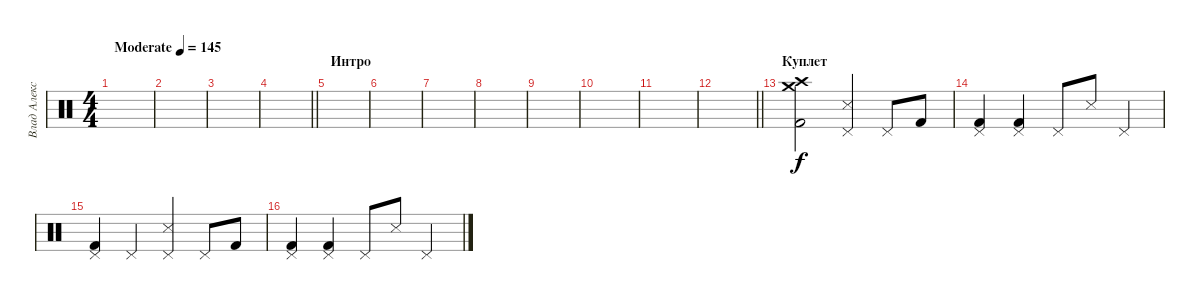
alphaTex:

\track ("Влад Алексеенко" "Влад Алекс") {instrument percussion}
\staff {score}
\articulation defaults
\ts (4 4)
\tempo (145 "Moderate")
\clef neutral
\ks c
|
|
|
\barLineRight lightlight
|
\section ("" "Интро")
|
|
|
|
|
|
|
\barLineRight lightlight
|
\section ("" "Куплет")
("Crash medium (hit)" "Crash high (hit)" "Kick (hit) 2").2 ("Pedal Hi-Hat (hit)" "Metronome (hit)").4 "Pedal Hi-Hat (hit)".8 "Kick (hit) 2".8 |
("Pedal Hi-Hat (hit)" "Kick (hit) 2").4 ("Pedal Hi-Hat (hit)" "Kick (hit) 2").4 "Pedal Hi-Hat (hit)".8 "Metronome (hit)".8 "Pedal Hi-Hat (hit)".4 |
("Pedal Hi-Hat (hit)" "Kick (hit) 2").4 "Pedal Hi-Hat (hit)".4 ("Pedal Hi-Hat (hit)" "Metronome (hit)").4 "Pedal Hi-Hat (hit)".8 "Kick (hit) 2".8 |
("Pedal Hi-Hat (hit)" "Kick (hit) 2").4 ("Pedal Hi-Hat (hit)" "Kick (hit) 2").4 "Pedal Hi-Hat (hit)".8 "Metronome (hit)".8 "Pedal Hi-Hat (hit)".4
